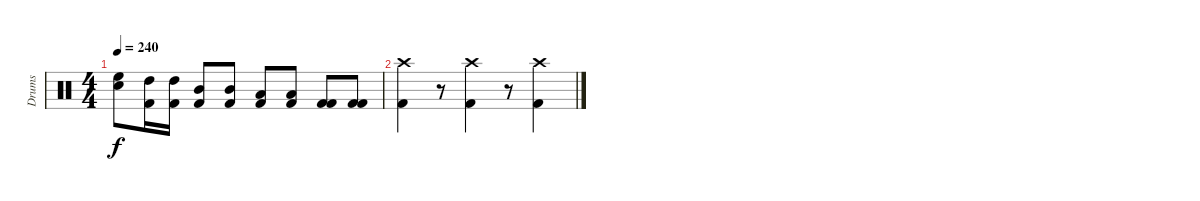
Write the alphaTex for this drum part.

\track ("Drums" "Drums") {instrument percussion}
\staff {score}
\articulation defaults
\ts (4 4)
\tempo 240
\clef neutral
\ks c
("High Floor Tom (hit)" "Electric Snare (hit)").8{dy f} ("High Tom (hit)" "Kick (hit) 2").16 ("High Tom (hit)" "Kick (hit) 2").16 ("Mid Tom (hit)" "Kick (hit) 2").8 ("Mid Tom (hit)" "Kick (hit) 2").8 ("Low Tom (hit)" "Kick (hit) 2").8 ("Low Tom (hit)" "Kick (hit) 2").8 ("Kick (hit) 2" "Kick (hit) 2").8 ("Kick (hit) 2" "Kick (hit) 2").8 |
("Crash high (hit)" "Kick (hit) 2").4 r.8 ("Crash high (hit)" "Kick (hit) 2").4 r.8 ("Crash high (hit)" "Kick (hit) 2").4
